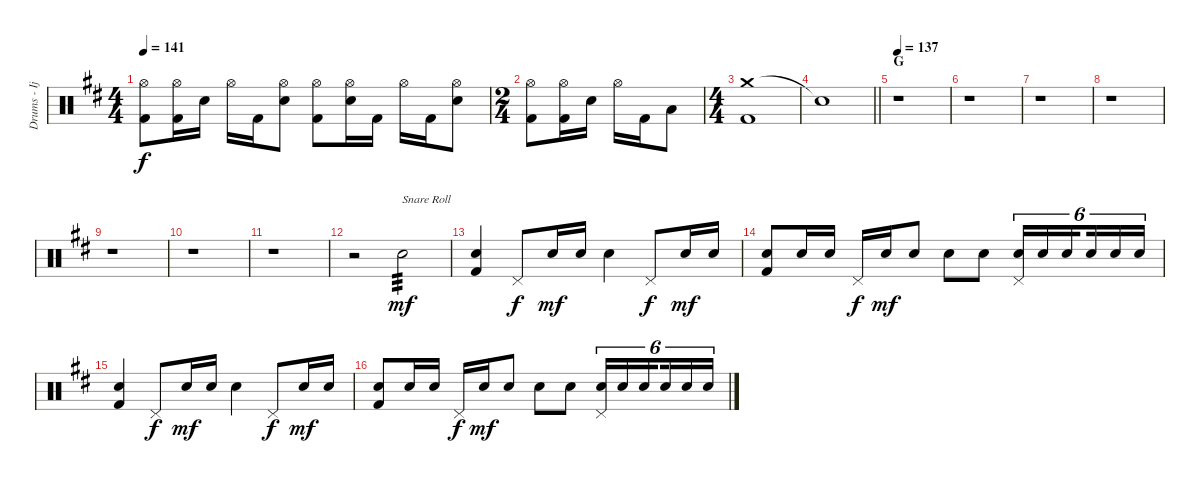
\track ("Drums - Ijichi" "Drums - Ij") {instrument percussion}
\staff {score}
\articulation defaults
\ts (4 4)
\tempo 141
\clef neutral
\ks d
("Hi-Hat (open)" "Kick (hit) 2").8{dy f} ("Hi-Hat (open)" "Kick (hit) 2").16 "Electric Snare (hit)".16 "Hi-Hat (open)".16 "Kick (hit) 2".16 ("Hi-Hat (open)" "Electric Snare (hit)").8 ("Hi-Hat (open)" "Kick (hit) 2").8 ("Hi-Hat (open)" "Electric Snare (hit)").16 "Kick (hit) 2".16 "Hi-Hat (open)".16 "Kick (hit) 2".16 ("Hi-Hat (open)" "Electric Snare (hit)").8 |
\ts (2 4)
("Hi-Hat (open)" "Kick (hit) 2").8 ("Hi-Hat (open)" "Kick (hit) 2").16 "Electric Snare (hit)".16 "Hi-Hat (open)".16 "Kick (hit) 2".16 "Low Tom (hit)".8 |
\ts (4 4)
("Crash medium (hit)" "Kick (hit) 2").1 |
\barLineRight lightlight "Snare (hit)"{t}.1
|
\section ("" "G")
\tempo 137
r.1 |
r.1 |
r.1 |
r.1 |
r.1 |
r.1 |
r.1 |
r.2 "Electric Snare (hit)".2{txt "Snare Roll" tp 3 dy mf} |
("Electric Snare (hit)" "Kick (hit) 2").4 "Pedal Hi-Hat (hit)".8{dy f} "Electric Snare (hit)".16{dy mf} "Electric Snare (hit)".16 "Electric Snare (hit)".4 "Pedal Hi-Hat (hit)".8{dy f} "Electric Snare (hit)".16{dy mf} "Electric Snare (hit)".16 |
("Electric Snare (hit)" "Kick (hit) 2").8 "Electric Snare (hit)".16 "Electric Snare (hit)".16 "Pedal Hi-Hat (hit)".16{dy f} "Electric Snare (hit)".16{dy mf} "Electric Snare (hit)".8 "Electric Snare (hit)".8 "Electric Snare (hit)".8 ("Pedal Hi-Hat (hit)" "Electric Snare (hit)").16{tu (6 4)} "Electric Snare (hit)".16{tu (6 4)} "Electric Snare (hit)".16{tu (6 4) beam splitsecondary} "Electric Snare (hit)".16{tu (6 4)} "Electric Snare (hit)".16{tu (6 4)} "Electric Snare (hit)".16{tu (6 4)} |
("Electric Snare (hit)" "Kick (hit) 2").4 "Pedal Hi-Hat (hit)".8{dy f} "Electric Snare (hit)".16{dy mf} "Electric Snare (hit)".16 "Electric Snare (hit)".4 "Pedal Hi-Hat (hit)".8{dy f} "Electric Snare (hit)".16{dy mf} "Electric Snare (hit)".16 |
("Electric Snare (hit)" "Kick (hit) 2").8 "Electric Snare (hit)".16 "Electric Snare (hit)".16 "Pedal Hi-Hat (hit)".16{dy f} "Electric Snare (hit)".16{dy mf} "Electric Snare (hit)".8 "Electric Snare (hit)".8 "Electric Snare (hit)".8 ("Pedal Hi-Hat (hit)" "Electric Snare (hit)").16{tu (6 4)} "Electric Snare (hit)".16{tu (6 4)} "Electric Snare (hit)".16{tu (6 4) beam splitsecondary} "Electric Snare (hit)".16{tu (6 4)} "Electric Snare (hit)".16{tu (6 4)} "Electric Snare (hit)".16{tu (6 4)}
